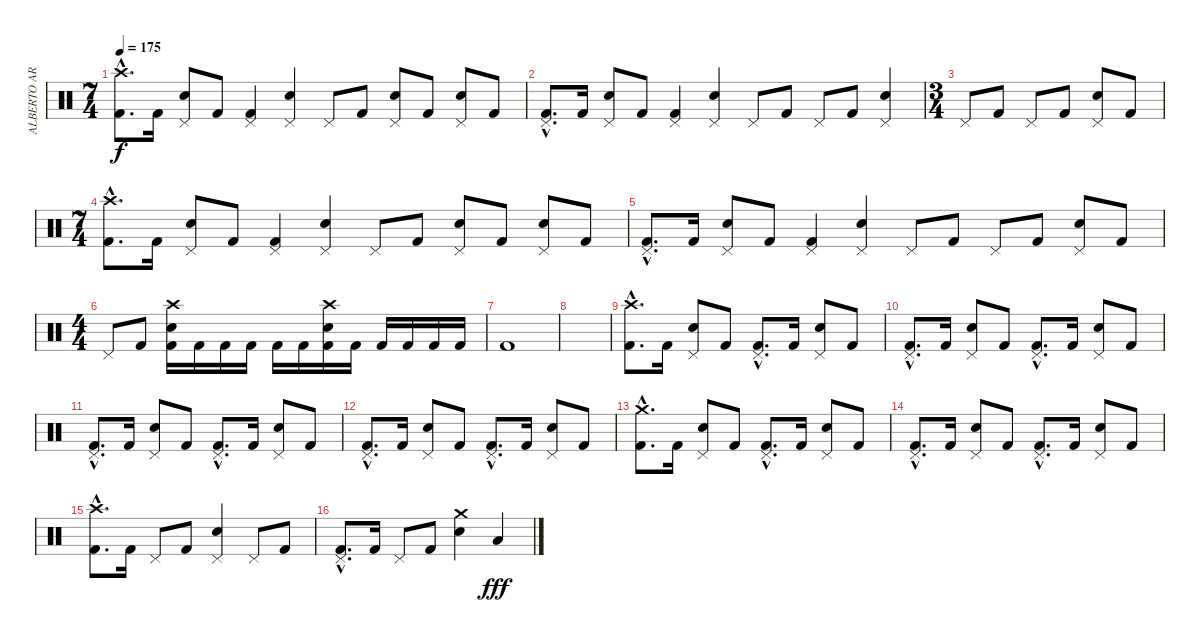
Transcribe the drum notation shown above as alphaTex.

\track ("ALBERTO ARDINES" "ALBERTO AR") {instrument percussion}
\staff {score}
\articulation defaults
\ts (7 4)
\tempo 175
\clef neutral
\ks c
("Crash high (hit)"{hac} "Kick (hit) 2"{hac}).8{d dy f} "Kick (hit) 2".16 ("Pedal Hi-Hat (hit)" "Electric Snare (hit)").8 "Kick (hit) 2".8 ("Pedal Hi-Hat (hit)" "Kick (hit) 2").4 ("Pedal Hi-Hat (hit)" "Electric Snare (hit)").4 "Pedal Hi-Hat (hit)".8 "Kick (hit) 2".8 ("Pedal Hi-Hat (hit)" "Electric Snare (hit)").8 "Kick (hit) 2".8 ("Pedal Hi-Hat (hit)" "Electric Snare (hit)").8 "Kick (hit) 2".8 |
("Pedal Hi-Hat (hit)"{hac} "Kick (hit) 2"{hac}).8{d} "Kick (hit) 2".16 ("Pedal Hi-Hat (hit)" "Electric Snare (hit)").8 "Kick (hit) 2".8 ("Pedal Hi-Hat (hit)" "Kick (hit) 2").4 ("Pedal Hi-Hat (hit)" "Electric Snare (hit)").4 "Pedal Hi-Hat (hit)".8 "Kick (hit) 2".8 "Pedal Hi-Hat (hit)".8 "Kick (hit) 2".8 ("Pedal Hi-Hat (hit)" "Electric Snare (hit)").4 |
\ts (3 4)
"Pedal Hi-Hat (hit)".8 "Kick (hit) 2".8 "Pedal Hi-Hat (hit)".8 "Kick (hit) 2".8 ("Pedal Hi-Hat (hit)" "Electric Snare (hit)").8 "Kick (hit) 2".8 |
\ts (7 4)
("Crash high (hit)"{hac} "Kick (hit) 2"{hac}).8{d} "Kick (hit) 2".16 ("Pedal Hi-Hat (hit)" "Electric Snare (hit)").8 "Kick (hit) 2".8 ("Pedal Hi-Hat (hit)" "Kick (hit) 2").4 ("Pedal Hi-Hat (hit)" "Electric Snare (hit)").4 "Pedal Hi-Hat (hit)".8 "Kick (hit) 2".8 ("Pedal Hi-Hat (hit)" "Electric Snare (hit)").8 "Kick (hit) 2".8 ("Pedal Hi-Hat (hit)" "Electric Snare (hit)").8 "Kick (hit) 2".8 |
("Pedal Hi-Hat (hit)"{hac} "Kick (hit) 2"{hac}).8{d} "Kick (hit) 2".16 ("Pedal Hi-Hat (hit)" "Electric Snare (hit)").8 "Kick (hit) 2".8 ("Pedal Hi-Hat (hit)" "Kick (hit) 2").4 ("Pedal Hi-Hat (hit)" "Electric Snare (hit)").4 "Pedal Hi-Hat (hit)".8 "Kick (hit) 2".8 "Pedal Hi-Hat (hit)".8 "Kick (hit) 2".8 ("Pedal Hi-Hat (hit)" "Electric Snare (hit)").8 "Kick (hit) 2".8 |
\ts (4 4)
"Pedal Hi-Hat (hit)".8 "Kick (hit) 2".8 ("Crash high (hit)" "Electric Snare (hit)" "Kick (hit) 2").16 "Kick (hit) 2".16 "Kick (hit) 2".16 "Kick (hit) 2".16 "Kick (hit) 2".16 "Kick (hit) 2".16 ("Crash high (hit)" "Electric Snare (hit)" "Kick (hit) 2").16 "Kick (hit) 2".16 "Kick (hit) 2".16 "Kick (hit) 2".16 "Kick (hit) 2".16 "Kick (hit) 2".16 |
"Kick (hit) 2".1 |
|
("Crash high (hit)"{hac} "Kick (hit) 2"{hac}).8{d} "Kick (hit) 2".16 ("Pedal Hi-Hat (hit)" "Electric Snare (hit)").8 "Kick (hit) 2".8 ("Pedal Hi-Hat (hit)"{hac} "Kick (hit) 2"{hac}).8{d} "Kick (hit) 2".16 ("Pedal Hi-Hat (hit)" "Electric Snare (hit)").8 "Kick (hit) 2".8 |
("Pedal Hi-Hat (hit)"{hac} "Kick (hit) 2"{hac}).8{d} "Kick (hit) 2".16 ("Pedal Hi-Hat (hit)" "Electric Snare (hit)").8 "Kick (hit) 2".8 ("Pedal Hi-Hat (hit)"{hac} "Kick (hit) 2"{hac}).8{d} "Kick (hit) 2".16 ("Pedal Hi-Hat (hit)" "Electric Snare (hit)").8 "Kick (hit) 2".8 |
("Pedal Hi-Hat (hit)"{hac} "Kick (hit) 2"{hac}).8{d} "Kick (hit) 2".16 ("Pedal Hi-Hat (hit)" "Electric Snare (hit)").8 "Kick (hit) 2".8 ("Pedal Hi-Hat (hit)"{hac} "Kick (hit) 2"{hac}).8{d} "Kick (hit) 2".16 ("Pedal Hi-Hat (hit)" "Electric Snare (hit)").8 "Kick (hit) 2".8 |
("Pedal Hi-Hat (hit)"{hac} "Kick (hit) 2"{hac}).8{d} "Kick (hit) 2".16 ("Pedal Hi-Hat (hit)" "Electric Snare (hit)").8 "Kick (hit) 2".8 ("Pedal Hi-Hat (hit)"{hac} "Kick (hit) 2"{hac}).8{d} "Kick (hit) 2".16 ("Pedal Hi-Hat (hit)" "Electric Snare (hit)").8 "Kick (hit) 2".8 |
("Crash medium (hit)"{hac} "Kick (hit) 2"{hac}).8{d} "Kick (hit) 2".16 ("Pedal Hi-Hat (hit)" "Electric Snare (hit)").8 "Kick (hit) 2".8 ("Pedal Hi-Hat (hit)"{hac} "Kick (hit) 2"{hac}).8{d} "Kick (hit) 2".16 ("Pedal Hi-Hat (hit)" "Electric Snare (hit)").8 "Kick (hit) 2".8 |
("Pedal Hi-Hat (hit)"{hac} "Kick (hit) 2"{hac}).8{d} "Kick (hit) 2".16 ("Pedal Hi-Hat (hit)" "Electric Snare (hit)").8 "Kick (hit) 2".8 ("Pedal Hi-Hat (hit)"{hac} "Kick (hit) 2"{hac}).8{d} "Kick (hit) 2".16 ("Pedal Hi-Hat (hit)" "Electric Snare (hit)").8 "Kick (hit) 2".8 |
("Crash high (hit)"{hac} "Kick (hit) 2"{hac}).8{d} "Kick (hit) 2".16 "Pedal Hi-Hat (hit)".8 "Kick (hit) 2".8 ("Pedal Hi-Hat (hit)" "Electric Snare (hit)").4 "Pedal Hi-Hat (hit)".8 "Kick (hit) 2".8 |
("Pedal Hi-Hat (hit)"{hac} "Kick (hit) 2"{hac}).8{d} "Kick (hit) 2".16 "Pedal Hi-Hat (hit)".8 "Kick (hit) 2".8 ("Crash medium (hit)" "Electric Snare (hit)").4 "Low Tom (hit)".4{dy fff}
